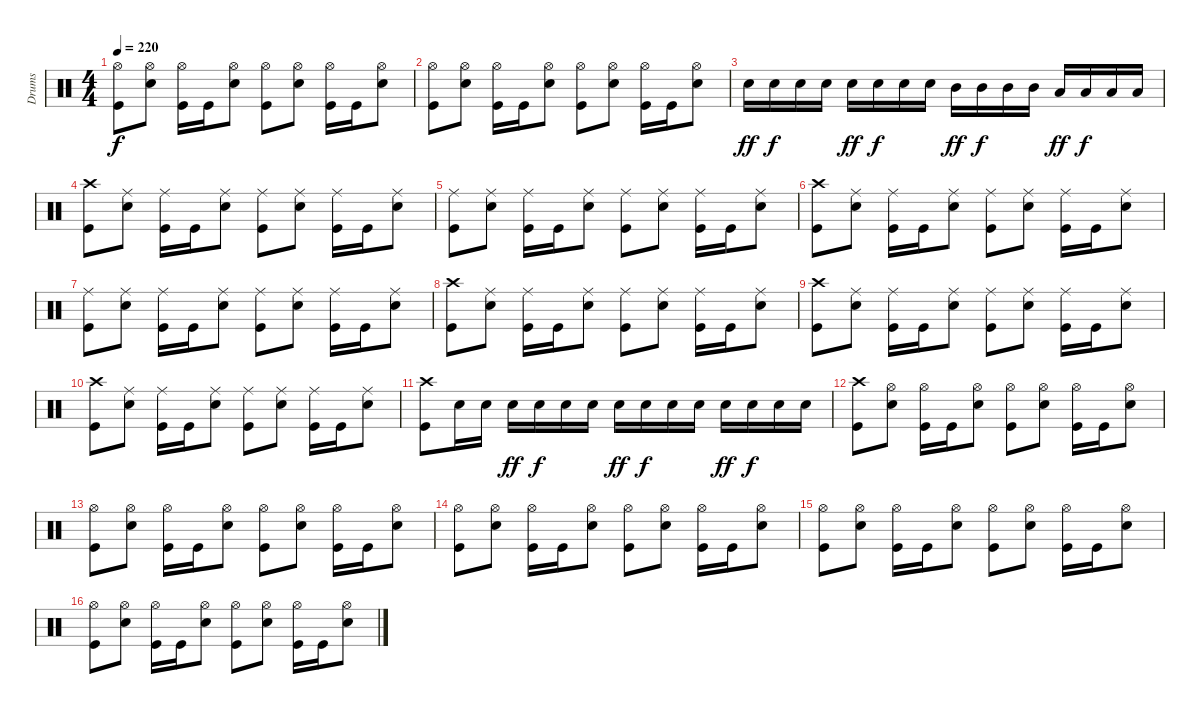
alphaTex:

\track ("Drums" "Drums") {instrument percussion}
\staff {score}
\articulation defaults
\ts (4 4)
\tempo 220
\clef neutral
\ks c
("Hi-Hat (open)" "Kick (hit)").8{dy f} ("Hi-Hat (open)" "Electric Snare (hit)").8 ("Hi-Hat (open)" "Kick (hit)").16 "Kick (hit)".16 ("Hi-Hat (open)" "Electric Snare (hit)").8 ("Hi-Hat (open)" "Kick (hit)").8 ("Hi-Hat (open)" "Electric Snare (hit)").8 ("Hi-Hat (open)" "Kick (hit)").16 "Kick (hit)".16 ("Hi-Hat (open)" "Electric Snare (hit)").8 |
("Hi-Hat (open)" "Kick (hit)").8 ("Hi-Hat (open)" "Electric Snare (hit)").8 ("Hi-Hat (open)" "Kick (hit)").16 "Kick (hit)".16 ("Hi-Hat (open)" "Electric Snare (hit)").8 ("Hi-Hat (open)" "Kick (hit)").8 ("Hi-Hat (open)" "Electric Snare (hit)").8 ("Hi-Hat (open)" "Kick (hit)").16 "Kick (hit)".16 ("Hi-Hat (open)" "Electric Snare (hit)").8 |
"Electric Snare (hit)".16{dy ff} "Electric Snare (hit)".16{dy f} "Electric Snare (hit)".16 "Electric Snare (hit)".16 "Electric Snare (hit)".16{dy ff} "Electric Snare (hit)".16{dy f} "Electric Snare (hit)".16 "Electric Snare (hit)".16 "Mid Tom (hit)".16{dy ff} "Mid Tom (hit)".16{dy f} "Mid Tom (hit)".16 "Mid Tom (hit)".16 "Low Tom (hit)".16{dy ff} "Low Tom (hit)".16{dy f} "Low Tom (hit)".16 "Low Tom (hit)".16 |
("Crash high (hit)" "Kick (hit)").8 ("Ride (middle)" "Electric Snare (hit)").8 ("Ride (middle)" "Kick (hit)").16 "Kick (hit)".16 ("Ride (middle)" "Electric Snare (hit)").8 ("Ride (middle)" "Kick (hit)").8 ("Ride (middle)" "Electric Snare (hit)").8 ("Ride (middle)" "Kick (hit)").16 "Kick (hit)".16 ("Ride (middle)" "Electric Snare (hit)").8 |
("Ride (middle)" "Kick (hit)").8 ("Ride (middle)" "Electric Snare (hit)").8 ("Ride (middle)" "Kick (hit)").16 "Kick (hit)".16 ("Ride (middle)" "Electric Snare (hit)").8 ("Ride (middle)" "Kick (hit)").8 ("Ride (middle)" "Electric Snare (hit)").8 ("Ride (middle)" "Kick (hit)").16 "Kick (hit)".16 ("Ride (middle)" "Electric Snare (hit)").8 |
("Crash high (hit)" "Kick (hit)").8 ("Ride (middle)" "Electric Snare (hit)").8 ("Ride (middle)" "Kick (hit)").16 "Kick (hit)".16 ("Ride (middle)" "Electric Snare (hit)").8 ("Ride (middle)" "Kick (hit)").8 ("Ride (middle)" "Electric Snare (hit)").8 ("Ride (middle)" "Kick (hit)").16 "Kick (hit)".16 ("Ride (middle)" "Electric Snare (hit)").8 |
("Ride (middle)" "Kick (hit)").8 ("Ride (middle)" "Electric Snare (hit)").8 ("Ride (middle)" "Kick (hit)").16 "Kick (hit)".16 ("Ride (middle)" "Electric Snare (hit)").8 ("Ride (middle)" "Kick (hit)").8 ("Ride (middle)" "Electric Snare (hit)").8 ("Ride (middle)" "Kick (hit)").16 "Kick (hit)".16 ("Ride (middle)" "Electric Snare (hit)").8 |
("Crash high (hit)" "Kick (hit)").8 ("Ride (middle)" "Electric Snare (hit)").8 ("Ride (middle)" "Kick (hit)").16 "Kick (hit)".16 ("Ride (middle)" "Electric Snare (hit)").8 ("Ride (middle)" "Kick (hit)").8 ("Ride (middle)" "Electric Snare (hit)").8 ("Ride (middle)" "Kick (hit)").16 "Kick (hit)".16 ("Ride (middle)" "Electric Snare (hit)").8 |
("Crash high (hit)" "Kick (hit)").8 ("Ride (middle)" "Electric Snare (hit)").8 ("Ride (middle)" "Kick (hit)").16 "Kick (hit)".16 ("Ride (middle)" "Electric Snare (hit)").8 ("Ride (middle)" "Kick (hit)").8 ("Ride (middle)" "Electric Snare (hit)").8 ("Ride (middle)" "Kick (hit)").16 "Kick (hit)".16 ("Ride (middle)" "Electric Snare (hit)").8 |
("Crash high (hit)" "Kick (hit)").8 ("Ride (middle)" "Electric Snare (hit)").8 ("Ride (middle)" "Kick (hit)").16 "Kick (hit)".16 ("Ride (middle)" "Electric Snare (hit)").8 ("Ride (middle)" "Kick (hit)").8 ("Ride (middle)" "Electric Snare (hit)").8 ("Ride (middle)" "Kick (hit)").16 "Kick (hit)".16 ("Ride (middle)" "Electric Snare (hit)").8 |
("Crash high (hit)" "Kick (hit)").8 "Electric Snare (hit)".16 "Electric Snare (hit)".16 "Electric Snare (hit)".16{dy ff} "Electric Snare (hit)".16{dy f} "Electric Snare (hit)".16 "Electric Snare (hit)".16 "Electric Snare (hit)".16{dy ff} "Electric Snare (hit)".16{dy f} "Electric Snare (hit)".16 "Electric Snare (hit)".16 "Electric Snare (hit)".16{dy ff} "Electric Snare (hit)".16{dy f} "Electric Snare (hit)".16 "Electric Snare (hit)".16 |
("Crash high (hit)" "Kick (hit)").8 ("Hi-Hat (open)" "Electric Snare (hit)").8 ("Hi-Hat (open)" "Kick (hit)").16 "Kick (hit)".16 ("Hi-Hat (open)" "Electric Snare (hit)").8 ("Hi-Hat (open)" "Kick (hit)").8 ("Hi-Hat (open)" "Electric Snare (hit)").8 ("Hi-Hat (open)" "Kick (hit)").16 "Kick (hit)".16 ("Hi-Hat (open)" "Electric Snare (hit)").8 |
("Hi-Hat (open)" "Kick (hit)").8 ("Hi-Hat (open)" "Electric Snare (hit)").8 ("Hi-Hat (open)" "Kick (hit)").16 "Kick (hit)".16 ("Hi-Hat (open)" "Electric Snare (hit)").8 ("Hi-Hat (open)" "Kick (hit)").8 ("Hi-Hat (open)" "Electric Snare (hit)").8 ("Hi-Hat (open)" "Kick (hit)").16 "Kick (hit)".16 ("Hi-Hat (open)" "Electric Snare (hit)").8 |
("Hi-Hat (open)" "Kick (hit)").8 ("Hi-Hat (open)" "Electric Snare (hit)").8 ("Hi-Hat (open)" "Kick (hit)").16 "Kick (hit)".16 ("Hi-Hat (open)" "Electric Snare (hit)").8 ("Hi-Hat (open)" "Kick (hit)").8 ("Hi-Hat (open)" "Electric Snare (hit)").8 ("Hi-Hat (open)" "Kick (hit)").16 "Kick (hit)".16 ("Hi-Hat (open)" "Electric Snare (hit)").8 |
("Hi-Hat (open)" "Kick (hit)").8 ("Hi-Hat (open)" "Electric Snare (hit)").8 ("Hi-Hat (open)" "Kick (hit)").16 "Kick (hit)".16 ("Hi-Hat (open)" "Electric Snare (hit)").8 ("Hi-Hat (open)" "Kick (hit)").8 ("Hi-Hat (open)" "Electric Snare (hit)").8 ("Hi-Hat (open)" "Kick (hit)").16 "Kick (hit)".16 ("Hi-Hat (open)" "Electric Snare (hit)").8 |
("Hi-Hat (open)" "Kick (hit)").8 ("Hi-Hat (open)" "Electric Snare (hit)").8 ("Hi-Hat (open)" "Kick (hit)").16 "Kick (hit)".16 ("Hi-Hat (open)" "Electric Snare (hit)").8 ("Hi-Hat (open)" "Kick (hit)").8 ("Hi-Hat (open)" "Electric Snare (hit)").8 ("Hi-Hat (open)" "Kick (hit)").16 "Kick (hit)".16 ("Hi-Hat (open)" "Electric Snare (hit)").8
